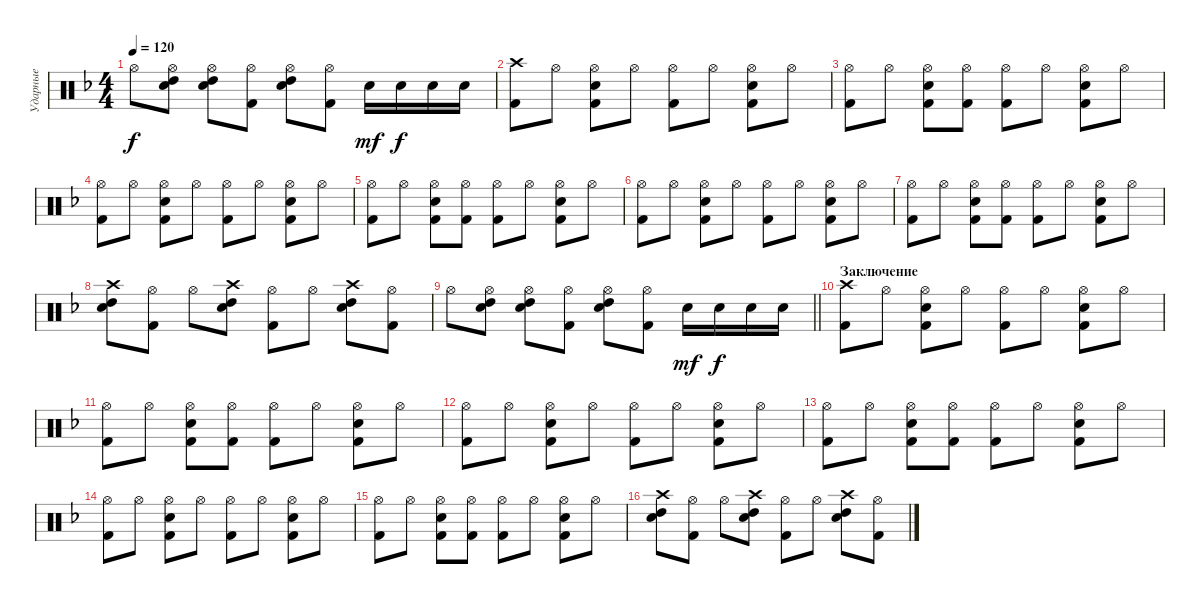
\track ("Ударные" "Ударные") {instrument percussion}
\staff {score}
\articulation defaults
\ts (4 4)
\tempo 120
\clef neutral
\ks f "Hi-Hat (open)".8{dy f}
("Electric Snare (hit)" "High Tom (hit)" "Hi-Hat (open)").8 ("Electric Snare (hit)" "High Tom (hit)" "Hi-Hat (open)").8 ("Kick (hit) 2" "Hi-Hat (open)").8 ("Electric Snare (hit)" "High Tom (hit)" "Hi-Hat (open)").8 ("Kick (hit) 2" "Hi-Hat (open)").8 "Electric Snare (hit)".16{dy mf} "Electric Snare (hit)".16{dy f} "Electric Snare (hit)".16 "Electric Snare (hit)".16 |
("Kick (hit) 2" "Crash high (hit)").8 "Hi-Hat (open)".8 ("Kick (hit) 2" "Electric Snare (hit)" "Hi-Hat (open)").8 "Hi-Hat (open)".8 ("Kick (hit) 2" "Hi-Hat (open)").8 "Hi-Hat (open)".8 ("Kick (hit) 2" "Electric Snare (hit)" "Hi-Hat (open)").8 "Hi-Hat (open)".8 |
("Kick (hit) 2" "Hi-Hat (open)").8 "Hi-Hat (open)".8 ("Kick (hit) 2" "Electric Snare (hit)" "Hi-Hat (open)").8 ("Kick (hit) 2" "Hi-Hat (open)").8 ("Kick (hit) 2" "Hi-Hat (open)").8 "Hi-Hat (open)".8 ("Kick (hit) 2" "Electric Snare (hit)" "Hi-Hat (open)").8 "Hi-Hat (open)".8 |
("Kick (hit) 2" "Hi-Hat (open)").8 "Hi-Hat (open)".8 ("Kick (hit) 2" "Electric Snare (hit)" "Hi-Hat (open)").8 "Hi-Hat (open)".8 ("Kick (hit) 2" "Hi-Hat (open)").8 "Hi-Hat (open)".8 ("Kick (hit) 2" "Electric Snare (hit)" "Hi-Hat (open)").8 "Hi-Hat (open)".8 |
("Kick (hit) 2" "Hi-Hat (open)").8 "Hi-Hat (open)".8 ("Kick (hit) 2" "Electric Snare (hit)" "Hi-Hat (open)").8 ("Kick (hit) 2" "Hi-Hat (open)").8 ("Kick (hit) 2" "Hi-Hat (open)").8 "Hi-Hat (open)".8 ("Kick (hit) 2" "Electric Snare (hit)" "Hi-Hat (open)").8 "Hi-Hat (open)".8 |
("Kick (hit) 2" "Hi-Hat (open)").8 "Hi-Hat (open)".8 ("Kick (hit) 2" "Electric Snare (hit)" "Hi-Hat (open)").8 "Hi-Hat (open)".8 ("Kick (hit) 2" "Hi-Hat (open)").8 "Hi-Hat (open)".8 ("Kick (hit) 2" "Electric Snare (hit)" "Hi-Hat (open)").8 "Hi-Hat (open)".8 |
("Kick (hit) 2" "Hi-Hat (open)").8 "Hi-Hat (open)".8 ("Kick (hit) 2" "Electric Snare (hit)" "Hi-Hat (open)").8 ("Kick (hit) 2" "Hi-Hat (open)").8 ("Kick (hit) 2" "Hi-Hat (open)").8 "Hi-Hat (open)".8 ("Kick (hit) 2" "Electric Snare (hit)" "Hi-Hat (open)").8 "Hi-Hat (open)".8 |
("Electric Snare (hit)" "High Tom (hit)" "Crash high (hit)").8 ("Kick (hit) 2" "Hi-Hat (open)").8 "Hi-Hat (open)".8 ("Electric Snare (hit)" "High Tom (hit)" "Crash high (hit)").8 ("Kick (hit) 2" "Hi-Hat (open)").8 "Hi-Hat (open)".8 ("Electric Snare (hit)" "High Tom (hit)" "Crash high (hit)").8 ("Kick (hit) 2" "Hi-Hat (open)").8 |
\barLineRight lightlight "Hi-Hat (open)".8
("Electric Snare (hit)" "High Tom (hit)" "Hi-Hat (open)").8 ("Electric Snare (hit)" "High Tom (hit)" "Hi-Hat (open)").8 ("Kick (hit) 2" "Hi-Hat (open)").8 ("Electric Snare (hit)" "High Tom (hit)" "Hi-Hat (open)").8 ("Kick (hit) 2" "Hi-Hat (open)").8 "Electric Snare (hit)".16{dy mf} "Electric Snare (hit)".16{dy f} "Electric Snare (hit)".16 "Electric Snare (hit)".16 |
\section ("" "Заключение")
("Kick (hit) 2" "Crash high (hit)").8 "Hi-Hat (open)".8 ("Kick (hit) 2" "Electric Snare (hit)" "Hi-Hat (open)").8 "Hi-Hat (open)".8 ("Kick (hit) 2" "Hi-Hat (open)").8 "Hi-Hat (open)".8 ("Kick (hit) 2" "Electric Snare (hit)" "Hi-Hat (open)").8 "Hi-Hat (open)".8 |
("Kick (hit) 2" "Hi-Hat (open)").8 "Hi-Hat (open)".8 ("Kick (hit) 2" "Electric Snare (hit)" "Hi-Hat (open)").8 ("Kick (hit) 2" "Hi-Hat (open)").8 ("Kick (hit) 2" "Hi-Hat (open)").8 "Hi-Hat (open)".8 ("Kick (hit) 2" "Electric Snare (hit)" "Hi-Hat (open)").8 "Hi-Hat (open)".8 |
("Kick (hit) 2" "Hi-Hat (open)").8 "Hi-Hat (open)".8 ("Kick (hit) 2" "Electric Snare (hit)" "Hi-Hat (open)").8 "Hi-Hat (open)".8 ("Kick (hit) 2" "Hi-Hat (open)").8 "Hi-Hat (open)".8 ("Kick (hit) 2" "Electric Snare (hit)" "Hi-Hat (open)").8 "Hi-Hat (open)".8 |
("Kick (hit) 2" "Hi-Hat (open)").8 "Hi-Hat (open)".8 ("Kick (hit) 2" "Electric Snare (hit)" "Hi-Hat (open)").8 ("Kick (hit) 2" "Hi-Hat (open)").8 ("Kick (hit) 2" "Hi-Hat (open)").8 "Hi-Hat (open)".8 ("Kick (hit) 2" "Electric Snare (hit)" "Hi-Hat (open)").8 "Hi-Hat (open)".8 |
("Kick (hit) 2" "Hi-Hat (open)").8 "Hi-Hat (open)".8 ("Kick (hit) 2" "Electric Snare (hit)" "Hi-Hat (open)").8 "Hi-Hat (open)".8 ("Kick (hit) 2" "Hi-Hat (open)").8 "Hi-Hat (open)".8 ("Kick (hit) 2" "Electric Snare (hit)" "Hi-Hat (open)").8 "Hi-Hat (open)".8 |
("Kick (hit) 2" "Hi-Hat (open)").8 "Hi-Hat (open)".8 ("Kick (hit) 2" "Electric Snare (hit)" "Hi-Hat (open)").8 ("Kick (hit) 2" "Hi-Hat (open)").8 ("Kick (hit) 2" "Hi-Hat (open)").8 "Hi-Hat (open)".8 ("Kick (hit) 2" "Electric Snare (hit)" "Hi-Hat (open)").8 "Hi-Hat (open)".8 |
("Electric Snare (hit)" "High Tom (hit)" "Crash high (hit)").8 ("Kick (hit) 2" "Hi-Hat (open)").8 "Hi-Hat (open)".8 ("Electric Snare (hit)" "High Tom (hit)" "Crash high (hit)").8 ("Kick (hit) 2" "Hi-Hat (open)").8 "Hi-Hat (open)".8 ("Electric Snare (hit)" "High Tom (hit)" "Crash high (hit)").8 ("Kick (hit) 2" "Hi-Hat (open)").8
